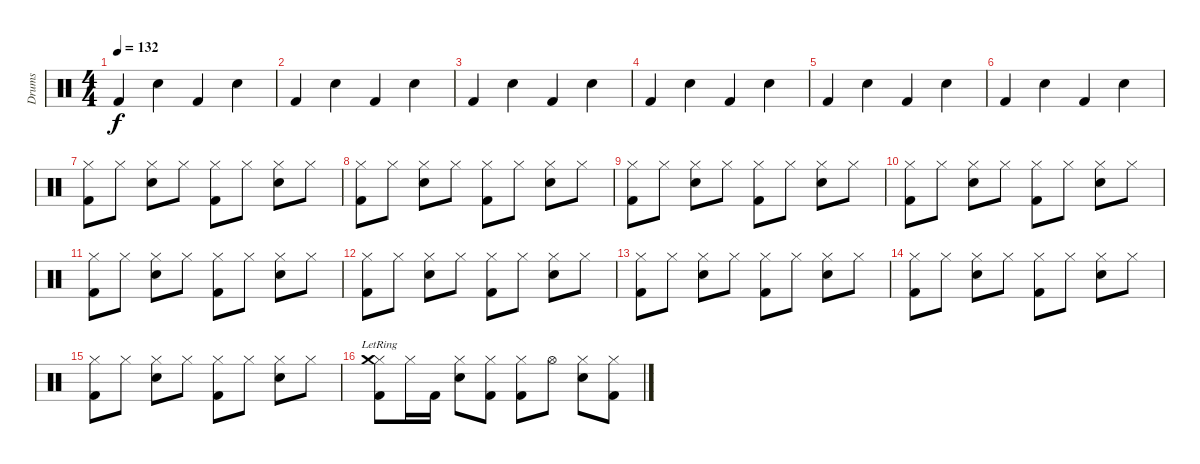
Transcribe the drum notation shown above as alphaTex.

\track ("Drums" "Drums") {instrument percussion}
\staff {score}
\articulation defaults
\ts (4 4)
\tempo 132
\clef neutral
\ks c "Kick (hit) 2".4{dy f} "Electric Snare (hit)".4 "Kick (hit) 2".4 "Electric Snare (hit)".4
|
"Kick (hit) 2".4 "Electric Snare (hit)".4 "Kick (hit) 2".4 "Electric Snare (hit)".4 |
"Kick (hit) 2".4 "Electric Snare (hit)".4 "Kick (hit) 2".4 "Electric Snare (hit)".4 |
"Kick (hit) 2".4 "Electric Snare (hit)".4 "Kick (hit) 2".4 "Electric Snare (hit)".4 |
"Kick (hit) 2".4 "Electric Snare (hit)".4 "Kick (hit) 2".4 "Electric Snare (hit)".4 |
"Kick (hit) 2".4 "Electric Snare (hit)".4 "Kick (hit) 2".4 "Electric Snare (hit)".4 |
("Kick (hit) 2" "Hi-Hat (closed)").8 "Hi-Hat (closed)".8 ("Electric Snare (hit)" "Hi-Hat (closed)").8 "Hi-Hat (closed)".8 ("Kick (hit) 2" "Hi-Hat (closed)").8 "Hi-Hat (closed)".8 ("Electric Snare (hit)" "Hi-Hat (closed)").8 "Hi-Hat (closed)".8 |
("Kick (hit) 2" "Hi-Hat (closed)").8 "Hi-Hat (closed)".8 ("Electric Snare (hit)" "Hi-Hat (closed)").8 "Hi-Hat (closed)".8 ("Kick (hit) 2" "Hi-Hat (closed)").8 "Hi-Hat (closed)".8 ("Electric Snare (hit)" "Hi-Hat (closed)").8 "Hi-Hat (closed)".8 |
("Kick (hit) 2" "Hi-Hat (closed)").8 "Hi-Hat (closed)".8 ("Electric Snare (hit)" "Hi-Hat (closed)").8 "Hi-Hat (closed)".8 ("Kick (hit) 2" "Hi-Hat (closed)").8 "Hi-Hat (closed)".8 ("Electric Snare (hit)" "Hi-Hat (closed)").8 "Hi-Hat (closed)".8 |
("Kick (hit) 2" "Hi-Hat (closed)").8 "Hi-Hat (closed)".8 ("Electric Snare (hit)" "Hi-Hat (closed)").8 "Hi-Hat (closed)".8 ("Kick (hit) 2" "Hi-Hat (closed)").8 "Hi-Hat (closed)".8 ("Electric Snare (hit)" "Hi-Hat (closed)").8 "Hi-Hat (closed)".8 |
("Kick (hit) 2" "Hi-Hat (closed)").8 "Hi-Hat (closed)".8 ("Electric Snare (hit)" "Hi-Hat (closed)").8 "Hi-Hat (closed)".8 ("Kick (hit) 2" "Hi-Hat (closed)").8 "Hi-Hat (closed)".8 ("Electric Snare (hit)" "Hi-Hat (closed)").8 "Hi-Hat (closed)".8 |
("Kick (hit) 2" "Hi-Hat (closed)").8 "Hi-Hat (closed)".8 ("Electric Snare (hit)" "Hi-Hat (closed)").8 "Hi-Hat (closed)".8 ("Kick (hit) 2" "Hi-Hat (closed)").8 "Hi-Hat (closed)".8 ("Electric Snare (hit)" "Hi-Hat (closed)").8 "Hi-Hat (closed)".8 |
("Kick (hit) 2" "Hi-Hat (closed)").8 "Hi-Hat (closed)".8 ("Electric Snare (hit)" "Hi-Hat (closed)").8 "Hi-Hat (closed)".8 ("Kick (hit) 2" "Hi-Hat (closed)").8 "Hi-Hat (closed)".8 ("Electric Snare (hit)" "Hi-Hat (closed)").8 "Hi-Hat (closed)".8 |
("Kick (hit) 2" "Hi-Hat (closed)").8 "Hi-Hat (closed)".8 ("Electric Snare (hit)" "Hi-Hat (closed)").8 "Hi-Hat (closed)".8 ("Kick (hit) 2" "Hi-Hat (closed)").8 "Hi-Hat (closed)".8 ("Electric Snare (hit)" "Hi-Hat (closed)").8 "Hi-Hat (closed)".8 |
("Kick (hit) 2" "Hi-Hat (closed)").8 "Hi-Hat (closed)".8 ("Electric Snare (hit)" "Hi-Hat (closed)").8 "Hi-Hat (closed)".8 ("Kick (hit) 2" "Hi-Hat (closed)").8 "Hi-Hat (closed)".8 ("Electric Snare (hit)" "Hi-Hat (closed)").8 "Hi-Hat (closed)".8 |
("Kick (hit) 2" "Hi-Hat (closed)" "Crash medium (hit)"{lr}).8 "Hi-Hat (closed)".16 "Kick (hit) 2".16 ("Electric Snare (hit)" "Hi-Hat (closed)").8 ("Kick (hit) 2" "Hi-Hat (closed)").8 ("Kick (hit) 2" "Hi-Hat (closed)").8 "Hi-Hat (open)".8 ("Electric Snare (hit)" "Hi-Hat (closed)").8 ("Kick (hit) 2" "Hi-Hat (closed)").8
